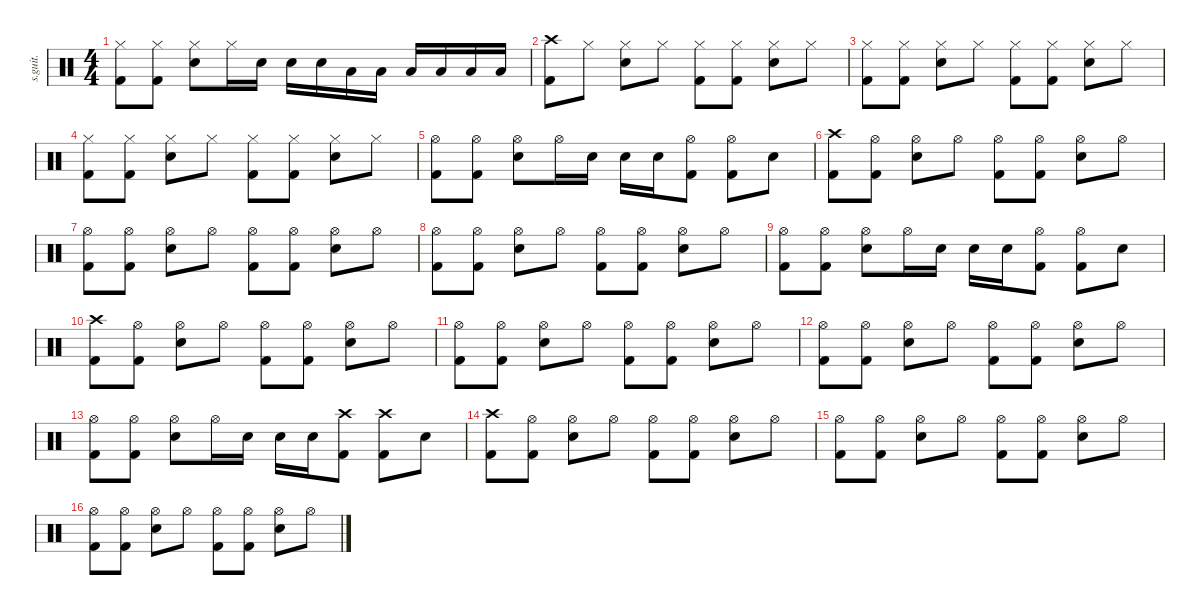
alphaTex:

\defaultSystemsLayout 4
\hideDynamics
\bracketExtendMode nobrackets
\track ("" "s.guit.") {instrument percussion}
\staff {score}
\articulation defaults
\ts (4 4)
\tempo (128 hide)
\clef neutral
\ks c
("Hi-Hat (closed)" "Kick (hit) 2").8{dy f} ("Hi-Hat (closed)" "Kick (hit) 2").8 ("Hi-Hat (closed)" "Snare (hit) 2").8 "Hi-Hat (closed)".16 "Snare (hit) 2".16 "Snare (hit) 2".16 "Snare (hit) 2".16 "Low Tom (hit)".16 "Low Tom (hit)".16 "Low Tom (hit)".16 "Low Tom (hit)".16 "Low Floor Tom (hit)".16 "Low Floor Tom (hit)".16 |
("Crash high (hit)" "Kick (hit) 2").8 "Hi-Hat (closed)".8 ("Hi-Hat (closed)" "Snare (hit) 2").8 "Hi-Hat (closed)".8 ("Hi-Hat (closed)" "Kick (hit) 2").8 ("Hi-Hat (closed)" "Kick (hit) 2").8 ("Hi-Hat (closed)" "Snare (hit) 2").8 "Hi-Hat (closed)".8 |
("Hi-Hat (closed)" "Kick (hit) 2").8 ("Hi-Hat (closed)" "Kick (hit) 2").8 ("Hi-Hat (closed)" "Snare (hit) 2").8 "Hi-Hat (closed)".8 ("Hi-Hat (closed)" "Kick (hit) 2").8 ("Hi-Hat (closed)" "Kick (hit) 2").8 ("Hi-Hat (closed)" "Snare (hit) 2").8 "Hi-Hat (closed)".8 |
("Hi-Hat (closed)" "Kick (hit) 2").8 ("Hi-Hat (closed)" "Kick (hit) 2").8 ("Hi-Hat (closed)" "Snare (hit) 2").8 "Hi-Hat (closed)".8 ("Hi-Hat (closed)" "Kick (hit) 2").8 ("Hi-Hat (closed)" "Kick (hit) 2").8 ("Hi-Hat (closed)" "Snare (hit) 2").8 "Hi-Hat (closed)".8 |
("Hi-Hat (open)" "Kick (hit) 2").8 ("Hi-Hat (open)" "Kick (hit) 2").8 ("Hi-Hat (open)" "Snare (hit) 2").8 "Hi-Hat (open)".16 "Snare (hit) 2".16 "Snare (hit) 2".16 "Snare (hit) 2".16 ("Hi-Hat (open)" "Kick (hit) 2").8 ("Hi-Hat (open)" "Kick (hit) 2").8 "Snare (hit) 2".8 |
("Crash high (hit)" "Kick (hit) 2").8 ("Hi-Hat (open)" "Kick (hit) 2").8 ("Hi-Hat (open)" "Snare (hit) 2").8 "Hi-Hat (open)".8 ("Hi-Hat (open)" "Kick (hit) 2").8 ("Hi-Hat (open)" "Kick (hit) 2").8 ("Hi-Hat (open)" "Snare (hit) 2").8 "Hi-Hat (open)".8 |
("Hi-Hat (open)" "Kick (hit) 2").8 ("Hi-Hat (open)" "Kick (hit) 2").8 ("Hi-Hat (open)" "Snare (hit) 2").8 "Hi-Hat (open)".8 ("Hi-Hat (open)" "Kick (hit) 2").8 ("Hi-Hat (open)" "Kick (hit) 2").8 ("Hi-Hat (open)" "Snare (hit) 2").8 "Hi-Hat (open)".8 |
("Hi-Hat (open)" "Kick (hit) 2").8 ("Hi-Hat (open)" "Kick (hit) 2").8 ("Hi-Hat (open)" "Snare (hit) 2").8 "Hi-Hat (open)".8 ("Hi-Hat (open)" "Kick (hit) 2").8 ("Hi-Hat (open)" "Kick (hit) 2").8 ("Hi-Hat (open)" "Snare (hit) 2").8 "Hi-Hat (open)".8 |
("Hi-Hat (open)" "Kick (hit) 2").8 ("Hi-Hat (open)" "Kick (hit) 2").8 ("Hi-Hat (open)" "Snare (hit) 2").8 "Hi-Hat (open)".16 "Snare (hit) 2".16 "Snare (hit) 2".16 "Snare (hit) 2".16 ("Hi-Hat (open)" "Kick (hit) 2").8 ("Hi-Hat (open)" "Kick (hit) 2").8 "Snare (hit) 2".8 |
("Crash high (hit)" "Kick (hit) 2").8 ("Hi-Hat (open)" "Kick (hit) 2").8 ("Hi-Hat (open)" "Snare (hit) 2").8 "Hi-Hat (open)".8 ("Hi-Hat (open)" "Kick (hit) 2").8 ("Hi-Hat (open)" "Kick (hit) 2").8 ("Hi-Hat (open)" "Snare (hit) 2").8 "Hi-Hat (open)".8 |
("Hi-Hat (open)" "Kick (hit) 2").8 ("Hi-Hat (open)" "Kick (hit) 2").8 ("Hi-Hat (open)" "Snare (hit) 2").8 "Hi-Hat (open)".8 ("Hi-Hat (open)" "Kick (hit) 2").8 ("Hi-Hat (open)" "Kick (hit) 2").8 ("Hi-Hat (open)" "Snare (hit) 2").8 "Hi-Hat (open)".8 |
("Hi-Hat (open)" "Kick (hit) 2").8 ("Hi-Hat (open)" "Kick (hit) 2").8 ("Hi-Hat (open)" "Snare (hit) 2").8 "Hi-Hat (open)".8 ("Hi-Hat (open)" "Kick (hit) 2").8 ("Hi-Hat (open)" "Kick (hit) 2").8 ("Hi-Hat (open)" "Snare (hit) 2").8 "Hi-Hat (open)".8 |
("Hi-Hat (open)" "Kick (hit) 2").8 ("Hi-Hat (open)" "Kick (hit) 2").8 ("Hi-Hat (open)" "Snare (hit) 2").8 "Hi-Hat (open)".16 "Snare (hit) 2".16 "Snare (hit) 2".16 "Snare (hit) 2".16 ("Crash high (hit)" "Kick (hit) 2").8 ("Crash high (hit)" "Kick (hit) 2").8 "Snare (hit) 2".8 |
("Crash high (hit)" "Kick (hit) 2").8 ("Hi-Hat (open)" "Kick (hit) 2").8 ("Hi-Hat (open)" "Snare (hit) 2").8 "Hi-Hat (open)".8 ("Hi-Hat (open)" "Kick (hit) 2").8 ("Hi-Hat (open)" "Kick (hit) 2").8 ("Hi-Hat (open)" "Snare (hit) 2").8 "Hi-Hat (open)".8 |
("Hi-Hat (open)" "Kick (hit) 2").8 ("Hi-Hat (open)" "Kick (hit) 2").8 ("Hi-Hat (open)" "Snare (hit) 2").8 "Hi-Hat (open)".8 ("Hi-Hat (open)" "Kick (hit) 2").8 ("Hi-Hat (open)" "Kick (hit) 2").8 ("Hi-Hat (open)" "Snare (hit) 2").8 "Hi-Hat (open)".8 |
("Hi-Hat (open)" "Kick (hit) 2").8 ("Hi-Hat (open)" "Kick (hit) 2").8 ("Hi-Hat (open)" "Snare (hit) 2").8 "Hi-Hat (open)".8 ("Hi-Hat (open)" "Kick (hit) 2").8 ("Hi-Hat (open)" "Kick (hit) 2").8 ("Hi-Hat (open)" "Snare (hit) 2").8 "Hi-Hat (open)".8
